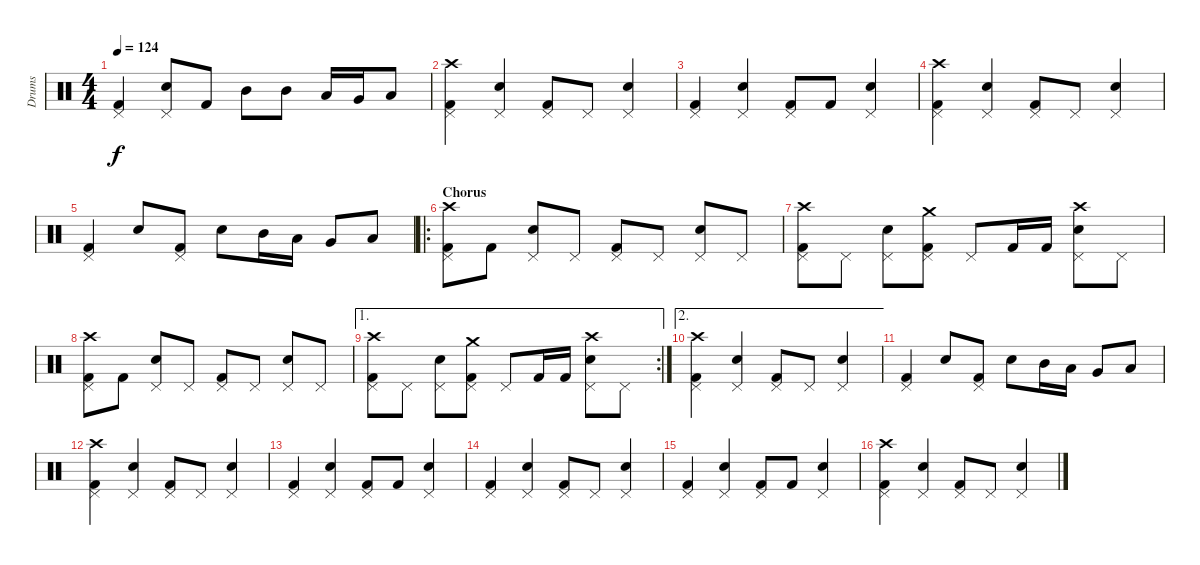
\track ("Drums" "Drums") {instrument percussion}
\staff {score}
\articulation defaults
\ts (4 4)
\tempo 124
\clef neutral
\ks c
("Kick (hit) 2" "Pedal Hi-Hat (hit)").4{dy f} ("Snare (hit) 2" "Pedal Hi-Hat (hit)").8 "Kick (hit) 2".8 "Mid Tom (hit)".8 "Mid Tom (hit)".8 "Low Tom (hit)".16 "Very Low Tom (hit)".16 "Low Floor Tom (hit)".8 |
("Kick (hit) 2" "Pedal Hi-Hat (hit)" "Crash high (hit)").4 ("Snare (hit) 2" "Pedal Hi-Hat (hit)").4 ("Kick (hit) 2" "Pedal Hi-Hat (hit)").8 "Pedal Hi-Hat (hit)".8 ("Snare (hit) 2" "Pedal Hi-Hat (hit)").4 |
("Kick (hit) 2" "Pedal Hi-Hat (hit)").4 ("Snare (hit) 2" "Pedal Hi-Hat (hit)").4 ("Kick (hit) 2" "Pedal Hi-Hat (hit)").8 "Kick (hit) 2".8 ("Snare (hit) 2" "Pedal Hi-Hat (hit)").4 |
("Kick (hit) 2" "Pedal Hi-Hat (hit)" "Crash high (hit)").4 ("Snare (hit) 2" "Pedal Hi-Hat (hit)").4 ("Kick (hit) 2" "Pedal Hi-Hat (hit)").8 "Pedal Hi-Hat (hit)".8 ("Snare (hit) 2" "Pedal Hi-Hat (hit)").4 |
("Kick (hit) 2" "Pedal Hi-Hat (hit)").4 "Snare (hit) 2".8 ("Kick (hit) 2" "Pedal Hi-Hat (hit)").8 "Snare (hit) 2".8 "Mid Tom (hit)".16 "Low Tom (hit)".16 "Very Low Tom (hit)".8 "Low Floor Tom (hit)".8 |
\ro
\section ("" "Chorus")
("Kick (hit) 2" "Pedal Hi-Hat (hit)" "Crash high (hit)").8 "Kick (hit) 2".8 ("Snare (hit) 2" "Pedal Hi-Hat (hit)").8 "Pedal Hi-Hat (hit)".8 ("Kick (hit) 2" "Pedal Hi-Hat (hit)").8 "Pedal Hi-Hat (hit)".8 ("Snare (hit) 2" "Pedal Hi-Hat (hit)").8 "Pedal Hi-Hat (hit)".8 |
("Kick (hit) 2" "Pedal Hi-Hat (hit)" "Crash high (hit)").8 "Pedal Hi-Hat (hit)".8 ("Snare (hit) 2" "Pedal Hi-Hat (hit)").8 ("Kick (hit) 2" "Pedal Hi-Hat (hit)" "Crash medium (hit)").8 "Pedal Hi-Hat (hit)".8 "Kick (hit) 2".16 "Kick (hit) 2".16 ("Snare (hit) 2" "Pedal Hi-Hat (hit)" "Crash high (hit)").8 "Pedal Hi-Hat (hit)".8 |
("Kick (hit) 2" "Pedal Hi-Hat (hit)" "Crash high (hit)").8 "Kick (hit) 2".8 ("Snare (hit) 2" "Pedal Hi-Hat (hit)").8 "Pedal Hi-Hat (hit)".8 ("Kick (hit) 2" "Pedal Hi-Hat (hit)").8 "Pedal Hi-Hat (hit)".8 ("Snare (hit) 2" "Pedal Hi-Hat (hit)").8 "Pedal Hi-Hat (hit)".8 |
\ae 1
\rc 2
("Kick (hit) 2" "Pedal Hi-Hat (hit)" "Crash high (hit)").8 "Pedal Hi-Hat (hit)".8 ("Snare (hit) 2" "Pedal Hi-Hat (hit)").8 ("Kick (hit) 2" "Pedal Hi-Hat (hit)" "Crash medium (hit)").8 "Pedal Hi-Hat (hit)".8 "Kick (hit) 2".16 "Kick (hit) 2".16 ("Snare (hit) 2" "Pedal Hi-Hat (hit)" "Crash high (hit)").8 "Pedal Hi-Hat (hit)".8 |
\ae 2
("Kick (hit) 2" "Pedal Hi-Hat (hit)" "Crash high (hit)").4 ("Snare (hit) 2" "Pedal Hi-Hat (hit)").4 ("Kick (hit) 2" "Pedal Hi-Hat (hit)").8 "Pedal Hi-Hat (hit)".8 ("Snare (hit) 2" "Pedal Hi-Hat (hit)").4 |
("Kick (hit) 2" "Pedal Hi-Hat (hit)").4 "Snare (hit) 2".8 ("Kick (hit) 2" "Pedal Hi-Hat (hit)").8 "Snare (hit) 2".8 "Mid Tom (hit)".16 "Low Tom (hit)".16 "Very Low Tom (hit)".8 "Low Floor Tom (hit)".8 |
("Kick (hit) 2" "Pedal Hi-Hat (hit)" "Crash high (hit)").4 ("Snare (hit) 2" "Pedal Hi-Hat (hit)").4 ("Kick (hit) 2" "Pedal Hi-Hat (hit)").8 "Pedal Hi-Hat (hit)".8 ("Snare (hit) 2" "Pedal Hi-Hat (hit)").4 |
("Kick (hit) 2" "Pedal Hi-Hat (hit)").4 ("Snare (hit) 2" "Pedal Hi-Hat (hit)").4 ("Kick (hit) 2" "Pedal Hi-Hat (hit)").8 "Kick (hit) 2".8 ("Snare (hit) 2" "Pedal Hi-Hat (hit)").4 |
("Kick (hit) 2" "Pedal Hi-Hat (hit)").4 ("Snare (hit) 2" "Pedal Hi-Hat (hit)").4 ("Kick (hit) 2" "Pedal Hi-Hat (hit)").8 "Pedal Hi-Hat (hit)".8 ("Snare (hit) 2" "Pedal Hi-Hat (hit)").4 |
("Kick (hit) 2" "Pedal Hi-Hat (hit)").4 ("Snare (hit) 2" "Pedal Hi-Hat (hit)").4 ("Kick (hit) 2" "Pedal Hi-Hat (hit)").8 "Kick (hit) 2".8 ("Snare (hit) 2" "Pedal Hi-Hat (hit)").4 |
("Kick (hit) 2" "Pedal Hi-Hat (hit)" "Crash high (hit)").4 ("Snare (hit) 2" "Pedal Hi-Hat (hit)").4 ("Kick (hit) 2" "Pedal Hi-Hat (hit)").8 "Pedal Hi-Hat (hit)".8 ("Snare (hit) 2" "Pedal Hi-Hat (hit)").4
